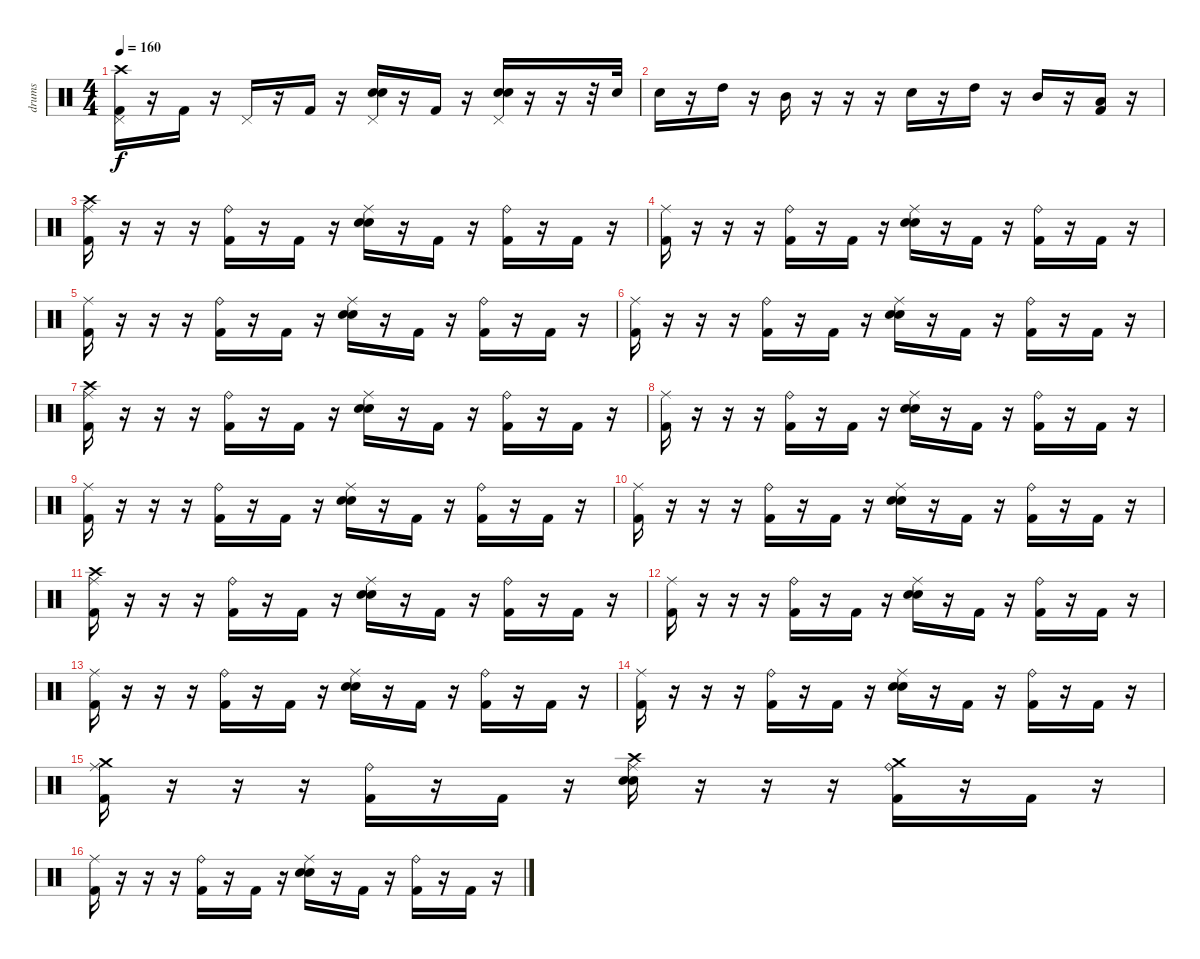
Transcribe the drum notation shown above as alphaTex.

\track ("drums" "drums") {instrument percussion}
\staff {score}
\articulation defaults
\ts (4 4)
\tempo 160
\clef neutral
\ks c
("Crash high (hit)" "Pedal Hi-Hat (hit)" "Kick (hit) 2").16{dy f} r.16 "Kick (hit) 2".16 r.16 "Pedal Hi-Hat (hit)".16 r.16 "Kick (hit) 2".16 r.16 ("Pedal Hi-Hat (hit)" "Electric Snare (hit)" "Snare (hit) 2").16 r.16 "Kick (hit) 2".16 r.16 ("Pedal Hi-Hat (hit)" "Electric Snare (hit)" "Snare (hit) 2").16 r.16 r.16 r.32 "Electric Snare (hit)".32 |
"Electric Snare (hit)".16 r.16 "High Tom (hit)".16 r.16 "Mid Tom (hit)".16 r.16 r.16 r.16 "Electric Snare (hit)".16 r.16 "High Tom (hit)".16 r.16 "Mid Tom (hit)".16 r.16 ("Low Tom (hit)" "Kick (hit) 2").16 r.16 |
("Crash high (hit)" "Ride (middle)" "Kick (hit) 2").16 r.16 r.16 r.16 ("Ride (bell)" "Kick (hit) 2").16 r.16 "Kick (hit) 2".16 r.16 ("Ride (middle)" "Electric Snare (hit)" "Snare (hit) 2").16 r.16 "Kick (hit) 2".16 r.16 ("Ride (bell)" "Kick (hit) 2").16 r.16 "Kick (hit) 2".16 r.16 |
("Ride (middle)" "Kick (hit) 2").16 r.16 r.16 r.16 ("Ride (bell)" "Kick (hit) 2").16 r.16 "Kick (hit) 2".16 r.16 ("Ride (middle)" "Electric Snare (hit)" "Snare (hit) 2").16 r.16 "Kick (hit) 2".16 r.16 ("Ride (bell)" "Kick (hit) 2").16 r.16 "Kick (hit) 2".16 r.16 |
("Ride (middle)" "Kick (hit) 2").16 r.16 r.16 r.16 ("Ride (bell)" "Kick (hit) 2").16 r.16 "Kick (hit) 2".16 r.16 ("Ride (middle)" "Electric Snare (hit)" "Snare (hit) 2").16 r.16 "Kick (hit) 2".16 r.16 ("Ride (bell)" "Kick (hit) 2").16 r.16 "Kick (hit) 2".16 r.16 |
("Ride (middle)" "Kick (hit) 2").16 r.16 r.16 r.16 ("Ride (bell)" "Kick (hit) 2").16 r.16 "Kick (hit) 2".16 r.16 ("Ride (middle)" "Electric Snare (hit)" "Snare (hit) 2").16 r.16 "Kick (hit) 2".16 r.16 ("Ride (bell)" "Kick (hit) 2").16 r.16 "Kick (hit) 2".16 r.16 |
("Crash high (hit)" "Ride (middle)" "Kick (hit) 2").16 r.16 r.16 r.16 ("Ride (bell)" "Kick (hit) 2").16 r.16 "Kick (hit) 2".16 r.16 ("Ride (middle)" "Electric Snare (hit)" "Snare (hit) 2").16 r.16 "Kick (hit) 2".16 r.16 ("Ride (bell)" "Kick (hit) 2").16 r.16 "Kick (hit) 2".16 r.16 |
("Ride (middle)" "Kick (hit) 2").16 r.16 r.16 r.16 ("Ride (bell)" "Kick (hit) 2").16 r.16 "Kick (hit) 2".16 r.16 ("Ride (middle)" "Electric Snare (hit)" "Snare (hit) 2").16 r.16 "Kick (hit) 2".16 r.16 ("Ride (bell)" "Kick (hit) 2").16 r.16 "Kick (hit) 2".16 r.16 |
("Ride (middle)" "Kick (hit) 2").16 r.16 r.16 r.16 ("Ride (bell)" "Kick (hit) 2").16 r.16 "Kick (hit) 2".16 r.16 ("Ride (middle)" "Electric Snare (hit)" "Snare (hit) 2").16 r.16 "Kick (hit) 2".16 r.16 ("Ride (bell)" "Kick (hit) 2").16 r.16 "Kick (hit) 2".16 r.16 |
("Ride (middle)" "Kick (hit) 2").16 r.16 r.16 r.16 ("Ride (bell)" "Kick (hit) 2").16 r.16 "Kick (hit) 2".16 r.16 ("Ride (middle)" "Electric Snare (hit)" "Snare (hit) 2").16 r.16 "Kick (hit) 2".16 r.16 ("Ride (bell)" "Kick (hit) 2").16 r.16 "Kick (hit) 2".16 r.16 |
("Crash high (hit)" "Ride (middle)" "Kick (hit) 2").16 r.16 r.16 r.16 ("Ride (bell)" "Kick (hit) 2").16 r.16 "Kick (hit) 2".16 r.16 ("Ride (middle)" "Electric Snare (hit)" "Snare (hit) 2").16 r.16 "Kick (hit) 2".16 r.16 ("Ride (bell)" "Kick (hit) 2").16 r.16 "Kick (hit) 2".16 r.16 |
("Ride (middle)" "Kick (hit) 2").16 r.16 r.16 r.16 ("Ride (bell)" "Kick (hit) 2").16 r.16 "Kick (hit) 2".16 r.16 ("Ride (middle)" "Electric Snare (hit)" "Snare (hit) 2").16 r.16 "Kick (hit) 2".16 r.16 ("Ride (bell)" "Kick (hit) 2").16 r.16 "Kick (hit) 2".16 r.16 |
("Ride (middle)" "Kick (hit) 2").16 r.16 r.16 r.16 ("Ride (bell)" "Kick (hit) 2").16 r.16 "Kick (hit) 2".16 r.16 ("Ride (middle)" "Electric Snare (hit)" "Snare (hit) 2").16 r.16 "Kick (hit) 2".16 r.16 ("Ride (bell)" "Kick (hit) 2").16 r.16 "Kick (hit) 2".16 r.16 |
("Ride (middle)" "Kick (hit) 2").16 r.16 r.16 r.16 ("Ride (bell)" "Kick (hit) 2").16 r.16 "Kick (hit) 2".16 r.16 ("Ride (middle)" "Electric Snare (hit)" "Snare (hit) 2").16 r.16 "Kick (hit) 2".16 r.16 ("Ride (bell)" "Kick (hit) 2").16 r.16 "Kick (hit) 2".16 r.16 |
("Crash medium (hit)" "Ride (middle)" "Kick (hit) 2").16 r.16 r.16 r.16 ("Ride (bell)" "Kick (hit) 2").16 r.16 "Kick (hit) 2".16 r.16 ("Crash high (hit)" "Ride (middle)" "Electric Snare (hit)" "Snare (hit) 2").16 r.16 r.16 r.16 ("Crash medium (hit)" "Ride (bell)" "Kick (hit) 2").16 r.16 "Kick (hit) 2".16 r.16 |
("Ride (middle)" "Kick (hit) 2").16 r.16 r.16 r.16 ("Ride (bell)" "Kick (hit) 2").16 r.16 "Kick (hit) 2".16 r.16 ("Ride (middle)" "Electric Snare (hit)" "Snare (hit) 2").16 r.16 "Kick (hit) 2".16 r.16 ("Ride (bell)" "Kick (hit) 2").16 r.16 "Kick (hit) 2".16 r.16
